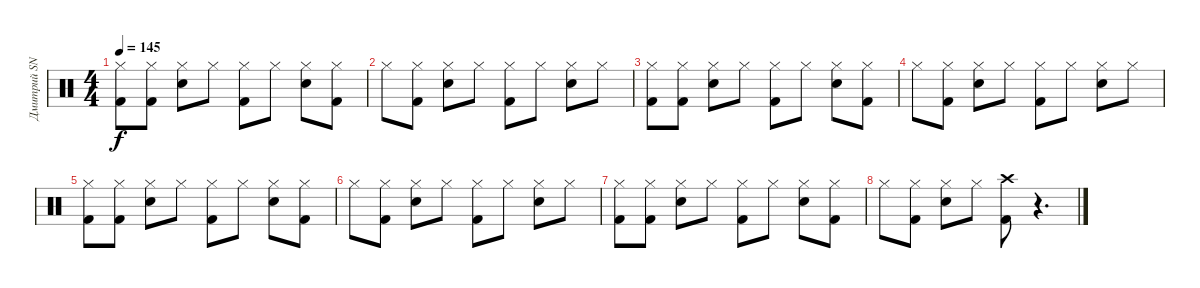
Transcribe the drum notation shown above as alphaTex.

\track ("Дмитрий SNAKE Хакимов" "Дмитрий SN") {instrument percussion}
\staff {score}
\articulation defaults
\ts (4 4)
\tempo 145
\clef neutral
\ks c
("Hi-Hat (closed)" "Kick (hit) 2").8{dy f} ("Hi-Hat (closed)" "Kick (hit) 2").8 ("Hi-Hat (closed)" "Snare (hit) 2").8 "Hi-Hat (closed)".8 ("Hi-Hat (closed)" "Kick (hit) 2").8 "Hi-Hat (closed)".8 ("Hi-Hat (closed)" "Snare (hit) 2").8 ("Hi-Hat (closed)" "Kick (hit) 2").8 |
"Hi-Hat (closed)".8 ("Hi-Hat (closed)" "Kick (hit) 2").8 ("Hi-Hat (closed)" "Snare (hit) 2").8 "Hi-Hat (closed)".8 ("Hi-Hat (closed)" "Kick (hit) 2").8 "Hi-Hat (closed)".8 ("Hi-Hat (closed)" "Snare (hit) 2").8 "Hi-Hat (closed)".8 |
("Hi-Hat (closed)" "Kick (hit) 2").8 ("Hi-Hat (closed)" "Kick (hit) 2").8 ("Hi-Hat (closed)" "Snare (hit) 2").8 "Hi-Hat (closed)".8 ("Hi-Hat (closed)" "Kick (hit) 2").8 "Hi-Hat (closed)".8 ("Hi-Hat (closed)" "Snare (hit) 2").8 ("Hi-Hat (closed)" "Kick (hit) 2").8 |
"Hi-Hat (closed)".8 ("Hi-Hat (closed)" "Kick (hit) 2").8 ("Hi-Hat (closed)" "Snare (hit) 2").8 "Hi-Hat (closed)".8 ("Hi-Hat (closed)" "Kick (hit) 2").8 "Hi-Hat (closed)".8 ("Hi-Hat (closed)" "Snare (hit) 2").8 "Hi-Hat (closed)".8 |
("Hi-Hat (closed)" "Kick (hit) 2").8 ("Hi-Hat (closed)" "Kick (hit) 2").8 ("Hi-Hat (closed)" "Snare (hit) 2").8 "Hi-Hat (closed)".8 ("Hi-Hat (closed)" "Kick (hit) 2").8 "Hi-Hat (closed)".8 ("Hi-Hat (closed)" "Snare (hit) 2").8 ("Hi-Hat (closed)" "Kick (hit) 2").8 |
"Hi-Hat (closed)".8 ("Hi-Hat (closed)" "Kick (hit) 2").8 ("Hi-Hat (closed)" "Snare (hit) 2").8 "Hi-Hat (closed)".8 ("Hi-Hat (closed)" "Kick (hit) 2").8 "Hi-Hat (closed)".8 ("Hi-Hat (closed)" "Snare (hit) 2").8 "Hi-Hat (closed)".8 |
("Hi-Hat (closed)" "Kick (hit) 2").8 ("Hi-Hat (closed)" "Kick (hit) 2").8 ("Hi-Hat (closed)" "Snare (hit) 2").8 "Hi-Hat (closed)".8 ("Hi-Hat (closed)" "Kick (hit) 2").8 "Hi-Hat (closed)".8 ("Hi-Hat (closed)" "Snare (hit) 2").8 ("Hi-Hat (closed)" "Kick (hit) 2").8 |
"Hi-Hat (closed)".8 ("Hi-Hat (closed)" "Kick (hit) 2").8 ("Hi-Hat (closed)" "Snare (hit) 2").8 "Hi-Hat (closed)".8 ("Crash high (hit)" "Kick (hit) 2").8 r.4{d}
